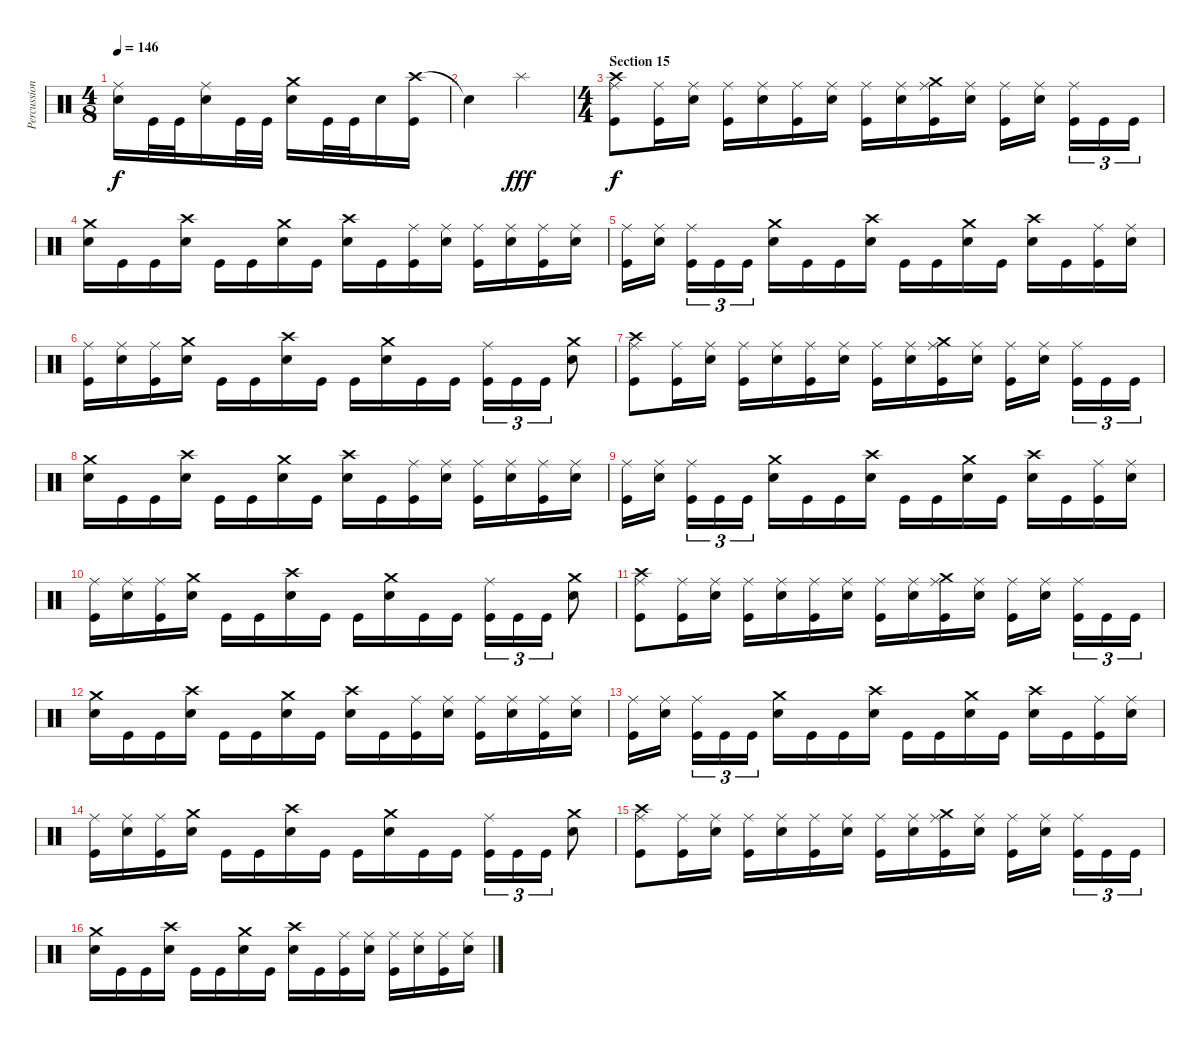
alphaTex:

\track ("Percussion" "Percussion") {instrument percussion}
\staff {score}
\articulation defaults
\ts (4 8)
\tempo 146
\clef neutral
\ks c
("Ride (middle)" "Electric Snare (hit)").16{dy f} "Kick (hit)".32 "Kick (hit)".32 ("Ride (middle)" "Electric Snare (hit)").16 "Kick (hit)".32 "Kick (hit)".32 ("Crash medium (hit)" "Electric Snare (hit)").16 "Kick (hit)".32 "Kick (hit)".32 "Electric Snare (hit)".16 ("Crash high (hit)" "Kick (hit)").16 |
"Snare (hit)"{t}.4 "Splash (hit)".4{dy fff} |
\ts (4 4)
\section ("" "Section 15")
("Crash high (hit)" "Ride (middle)" "Kick (hit)").8{dy f} ("Ride (middle)" "Kick (hit)").16 ("Ride (middle)" "Electric Snare (hit)").16 ("Ride (middle)" "Kick (hit)").16 ("Ride (middle)" "Electric Snare (hit)").16 ("Ride (middle)" "Kick (hit)").16 ("Ride (middle)" "Electric Snare (hit)").16 ("Ride (middle)" "Kick (hit)").16 ("Ride (middle)" "Electric Snare (hit)").16 ("Crash medium (hit)" "Ride (middle)" "Kick (hit)").16 ("Ride (middle)" "Electric Snare (hit)").16 ("Ride (middle)" "Kick (hit)").16 ("Ride (middle)" "Electric Snare (hit)").16{beam splitsecondary} ("Ride (middle)" "Kick (hit)").16{tu (3 2)} "Kick (hit)".16{tu (3 2)} "Kick (hit)".16{tu (3 2)} |
("Crash medium (hit)" "Electric Snare (hit)").16 "Kick (hit)".16 "Kick (hit)".16 ("Crash high (hit)" "Electric Snare (hit)").16 "Kick (hit)".16 "Kick (hit)".16 ("Crash medium (hit)" "Electric Snare (hit)").16 "Kick (hit)".16 ("Crash high (hit)" "Electric Snare (hit)").16 "Kick (hit)".16 ("Ride (middle)" "Kick (hit)").16 ("Ride (middle)" "Electric Snare (hit)").16 ("Ride (middle)" "Kick (hit)").16 ("Ride (middle)" "Electric Snare (hit)").16 ("Ride (middle)" "Kick (hit)").16 ("Ride (middle)" "Electric Snare (hit)").16 |
("Ride (middle)" "Kick (hit)").16 ("Ride (middle)" "Electric Snare (hit)").16{beam splitsecondary} ("Ride (middle)" "Kick (hit)").16{tu (3 2)} "Kick (hit)".16{tu (3 2)} "Kick (hit)".16{tu (3 2)} ("Crash medium (hit)" "Electric Snare (hit)").16 "Kick (hit)".16 "Kick (hit)".16 ("Crash high (hit)" "Electric Snare (hit)").16 "Kick (hit)".16 "Kick (hit)".16 ("Crash medium (hit)" "Electric Snare (hit)").16 "Kick (hit)".16 ("Crash high (hit)" "Electric Snare (hit)").16 "Kick (hit)".16 ("Ride (middle)" "Kick (hit)").16 ("Ride (middle)" "Electric Snare (hit)").16 |
("Ride (middle)" "Kick (hit)").16 ("Ride (middle)" "Electric Snare (hit)").16 ("Ride (middle)" "Kick (hit)").16 ("Crash medium (hit)" "Electric Snare (hit)").16 "Kick (hit)".16 "Kick (hit)".16 ("Crash high (hit)" "Electric Snare (hit)").16 "Kick (hit)".16 "Kick (hit)".16 ("Crash medium (hit)" "Electric Snare (hit)").16 "Kick (hit)".16 "Kick (hit)".16 ("Ride (middle)" "Kick (hit)").16{tu (3 2)} "Kick (hit)".16{tu (3 2)} "Kick (hit)".16{tu (3 2)} ("Crash medium (hit)" "Electric Snare (hit)").8 |
("Crash high (hit)" "Ride (middle)" "Kick (hit)").8 ("Ride (middle)" "Kick (hit)").16 ("Ride (middle)" "Electric Snare (hit)").16 ("Ride (middle)" "Kick (hit)").16 ("Ride (middle)" "Electric Snare (hit)").16 ("Ride (middle)" "Kick (hit)").16 ("Ride (middle)" "Electric Snare (hit)").16 ("Ride (middle)" "Kick (hit)").16 ("Ride (middle)" "Electric Snare (hit)").16 ("Crash medium (hit)" "Ride (middle)" "Kick (hit)").16 ("Ride (middle)" "Electric Snare (hit)").16 ("Ride (middle)" "Kick (hit)").16 ("Ride (middle)" "Electric Snare (hit)").16{beam splitsecondary} ("Ride (middle)" "Kick (hit)").16{tu (3 2)} "Kick (hit)".16{tu (3 2)} "Kick (hit)".16{tu (3 2)} |
("Crash medium (hit)" "Electric Snare (hit)").16 "Kick (hit)".16 "Kick (hit)".16 ("Crash high (hit)" "Electric Snare (hit)").16 "Kick (hit)".16 "Kick (hit)".16 ("Crash medium (hit)" "Electric Snare (hit)").16 "Kick (hit)".16 ("Crash high (hit)" "Electric Snare (hit)").16 "Kick (hit)".16 ("Ride (middle)" "Kick (hit)").16 ("Ride (middle)" "Electric Snare (hit)").16 ("Ride (middle)" "Kick (hit)").16 ("Ride (middle)" "Electric Snare (hit)").16 ("Ride (middle)" "Kick (hit)").16 ("Ride (middle)" "Electric Snare (hit)").16 |
("Ride (middle)" "Kick (hit)").16 ("Ride (middle)" "Electric Snare (hit)").16{beam splitsecondary} ("Ride (middle)" "Kick (hit)").16{tu (3 2)} "Kick (hit)".16{tu (3 2)} "Kick (hit)".16{tu (3 2)} ("Crash medium (hit)" "Electric Snare (hit)").16 "Kick (hit)".16 "Kick (hit)".16 ("Crash high (hit)" "Electric Snare (hit)").16 "Kick (hit)".16 "Kick (hit)".16 ("Crash medium (hit)" "Electric Snare (hit)").16 "Kick (hit)".16 ("Crash high (hit)" "Electric Snare (hit)").16 "Kick (hit)".16 ("Ride (middle)" "Kick (hit)").16 ("Ride (middle)" "Electric Snare (hit)").16 |
("Ride (middle)" "Kick (hit)").16 ("Ride (middle)" "Electric Snare (hit)").16 ("Ride (middle)" "Kick (hit)").16 ("Crash medium (hit)" "Electric Snare (hit)").16 "Kick (hit)".16 "Kick (hit)".16 ("Crash high (hit)" "Electric Snare (hit)").16 "Kick (hit)".16 "Kick (hit)".16 ("Crash medium (hit)" "Electric Snare (hit)").16 "Kick (hit)".16 "Kick (hit)".16 ("Ride (middle)" "Kick (hit)").16{tu (3 2)} "Kick (hit)".16{tu (3 2)} "Kick (hit)".16{tu (3 2)} ("Crash medium (hit)" "Electric Snare (hit)").8 |
("Crash high (hit)" "Ride (middle)" "Kick (hit)").8 ("Ride (middle)" "Kick (hit)").16 ("Ride (middle)" "Electric Snare (hit)").16 ("Ride (middle)" "Kick (hit)").16 ("Ride (middle)" "Electric Snare (hit)").16 ("Ride (middle)" "Kick (hit)").16 ("Ride (middle)" "Electric Snare (hit)").16 ("Ride (middle)" "Kick (hit)").16 ("Ride (middle)" "Electric Snare (hit)").16 ("Crash medium (hit)" "Ride (middle)" "Kick (hit)").16 ("Ride (middle)" "Electric Snare (hit)").16 ("Ride (middle)" "Kick (hit)").16 ("Ride (middle)" "Electric Snare (hit)").16{beam splitsecondary} ("Ride (middle)" "Kick (hit)").16{tu (3 2)} "Kick (hit)".16{tu (3 2)} "Kick (hit)".16{tu (3 2)} |
("Crash medium (hit)" "Electric Snare (hit)").16 "Kick (hit)".16 "Kick (hit)".16 ("Crash high (hit)" "Electric Snare (hit)").16 "Kick (hit)".16 "Kick (hit)".16 ("Crash medium (hit)" "Electric Snare (hit)").16 "Kick (hit)".16 ("Crash high (hit)" "Electric Snare (hit)").16 "Kick (hit)".16 ("Ride (middle)" "Kick (hit)").16 ("Ride (middle)" "Electric Snare (hit)").16 ("Ride (middle)" "Kick (hit)").16 ("Ride (middle)" "Electric Snare (hit)").16 ("Ride (middle)" "Kick (hit)").16 ("Ride (middle)" "Electric Snare (hit)").16 |
("Ride (middle)" "Kick (hit)").16 ("Ride (middle)" "Electric Snare (hit)").16{beam splitsecondary} ("Ride (middle)" "Kick (hit)").16{tu (3 2)} "Kick (hit)".16{tu (3 2)} "Kick (hit)".16{tu (3 2)} ("Crash medium (hit)" "Electric Snare (hit)").16 "Kick (hit)".16 "Kick (hit)".16 ("Crash high (hit)" "Electric Snare (hit)").16 "Kick (hit)".16 "Kick (hit)".16 ("Crash medium (hit)" "Electric Snare (hit)").16 "Kick (hit)".16 ("Crash high (hit)" "Electric Snare (hit)").16 "Kick (hit)".16 ("Ride (middle)" "Kick (hit)").16 ("Ride (middle)" "Electric Snare (hit)").16 |
("Ride (middle)" "Kick (hit)").16 ("Ride (middle)" "Electric Snare (hit)").16 ("Ride (middle)" "Kick (hit)").16 ("Crash medium (hit)" "Electric Snare (hit)").16 "Kick (hit)".16 "Kick (hit)".16 ("Crash high (hit)" "Electric Snare (hit)").16 "Kick (hit)".16 "Kick (hit)".16 ("Crash medium (hit)" "Electric Snare (hit)").16 "Kick (hit)".16 "Kick (hit)".16 ("Ride (middle)" "Kick (hit)").16{tu (3 2)} "Kick (hit)".16{tu (3 2)} "Kick (hit)".16{tu (3 2)} ("Crash medium (hit)" "Electric Snare (hit)").8 |
("Crash high (hit)" "Ride (middle)" "Kick (hit)").8 ("Ride (middle)" "Kick (hit)").16 ("Ride (middle)" "Electric Snare (hit)").16 ("Ride (middle)" "Kick (hit)").16 ("Ride (middle)" "Electric Snare (hit)").16 ("Ride (middle)" "Kick (hit)").16 ("Ride (middle)" "Electric Snare (hit)").16 ("Ride (middle)" "Kick (hit)").16 ("Ride (middle)" "Electric Snare (hit)").16 ("Crash medium (hit)" "Ride (middle)" "Kick (hit)").16 ("Ride (middle)" "Electric Snare (hit)").16 ("Ride (middle)" "Kick (hit)").16 ("Ride (middle)" "Electric Snare (hit)").16{beam splitsecondary} ("Ride (middle)" "Kick (hit)").16{tu (3 2)} "Kick (hit)".16{tu (3 2)} "Kick (hit)".16{tu (3 2)} |
("Crash medium (hit)" "Electric Snare (hit)").16 "Kick (hit)".16 "Kick (hit)".16 ("Crash high (hit)" "Electric Snare (hit)").16 "Kick (hit)".16 "Kick (hit)".16 ("Crash medium (hit)" "Electric Snare (hit)").16 "Kick (hit)".16 ("Crash high (hit)" "Electric Snare (hit)").16 "Kick (hit)".16 ("Ride (middle)" "Kick (hit)").16 ("Ride (middle)" "Electric Snare (hit)").16 ("Ride (middle)" "Kick (hit)").16 ("Ride (middle)" "Electric Snare (hit)").16 ("Ride (middle)" "Kick (hit)").16 ("Ride (middle)" "Electric Snare (hit)").16
